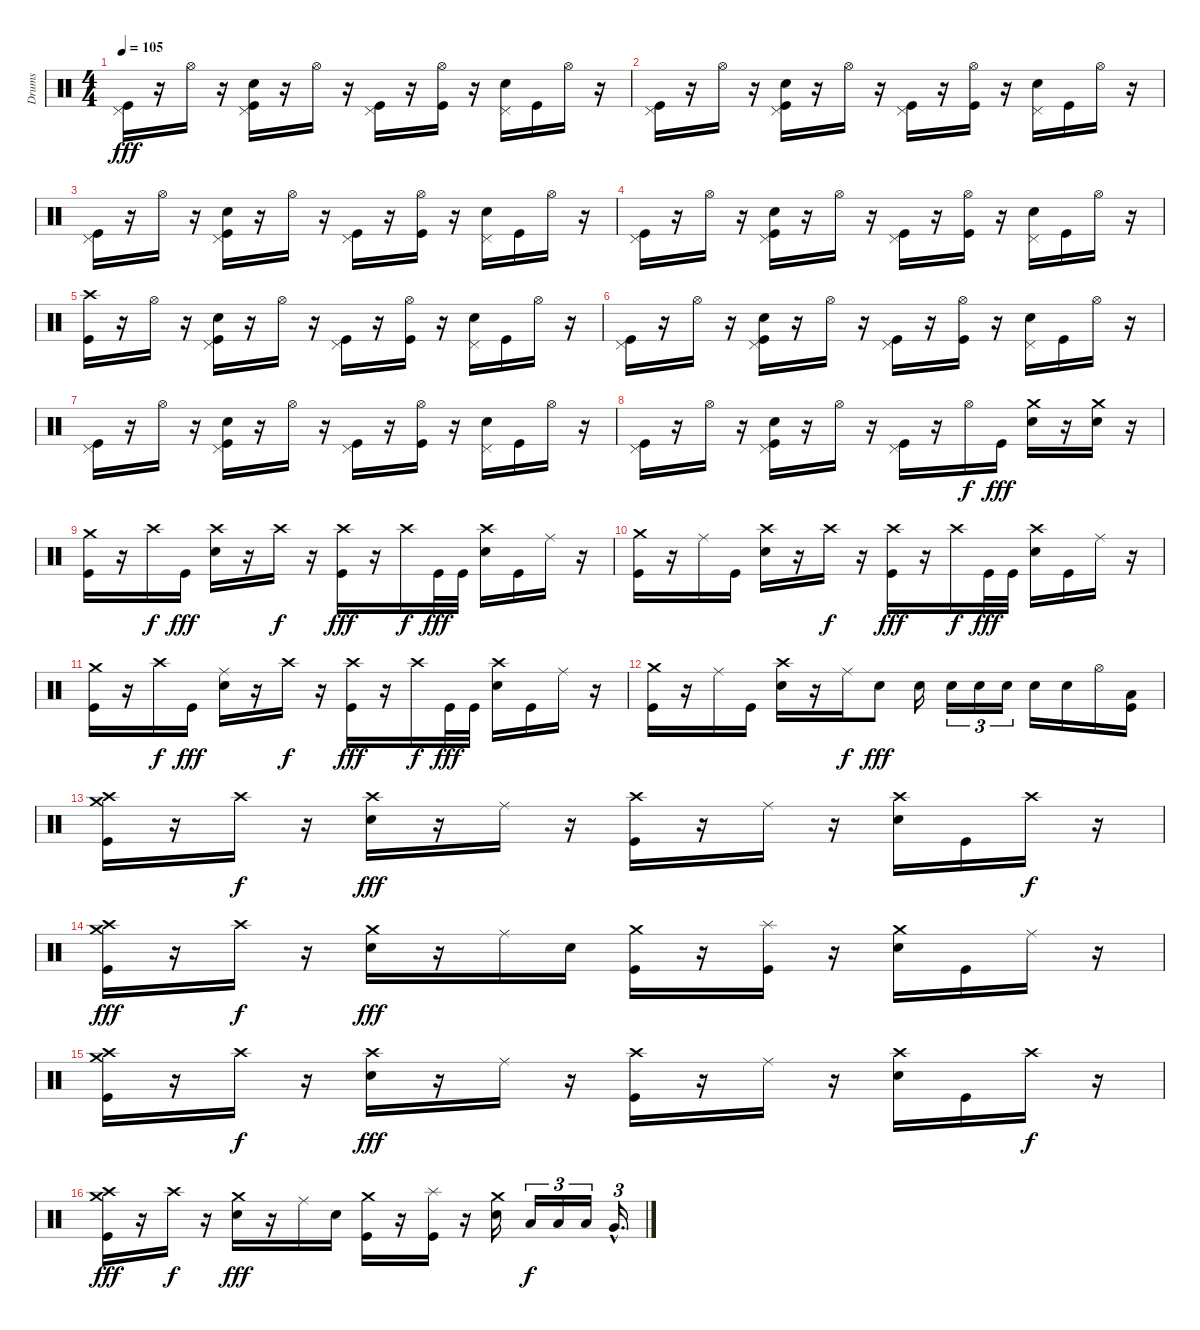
\track ("Drums" "Drums") {instrument percussion}
\staff {score}
\articulation defaults
\ts (4 4)
\tempo 105
\clef neutral
\ks c
("Pedal Hi-Hat (hit)" "Kick (hit)").16{dy fff} r.16 "Hi-Hat (open)".16 r.16 ("Pedal Hi-Hat (hit)" "Electric Snare (hit)" "Kick (hit)").16 r.16 "Hi-Hat (open)".16 r.16 ("Pedal Hi-Hat (hit)" "Kick (hit)").16 r.16 ("Hi-Hat (open)" "Kick (hit)").16 r.16 ("Pedal Hi-Hat (hit)" "Electric Snare (hit)").16 "Kick (hit)".16 "Hi-Hat (open)".16 r.16 |
("Pedal Hi-Hat (hit)" "Kick (hit)").16 r.16 "Hi-Hat (open)".16 r.16 ("Pedal Hi-Hat (hit)" "Electric Snare (hit)" "Kick (hit)").16 r.16 "Hi-Hat (open)".16 r.16 ("Pedal Hi-Hat (hit)" "Kick (hit)").16 r.16 ("Hi-Hat (open)" "Kick (hit)").16 r.16 ("Pedal Hi-Hat (hit)" "Electric Snare (hit)").16 "Kick (hit)".16 "Hi-Hat (open)".16 r.16 |
("Pedal Hi-Hat (hit)" "Kick (hit)").16 r.16 "Hi-Hat (open)".16 r.16 ("Pedal Hi-Hat (hit)" "Electric Snare (hit)" "Kick (hit)").16 r.16 "Hi-Hat (open)".16 r.16 ("Pedal Hi-Hat (hit)" "Kick (hit)").16 r.16 ("Hi-Hat (open)" "Kick (hit)").16 r.16 ("Pedal Hi-Hat (hit)" "Electric Snare (hit)").16 "Kick (hit)".16 "Hi-Hat (open)".16 r.16 |
("Pedal Hi-Hat (hit)" "Kick (hit)").16 r.16 "Hi-Hat (open)".16 r.16 ("Pedal Hi-Hat (hit)" "Electric Snare (hit)" "Kick (hit)").16 r.16 "Hi-Hat (open)".16 r.16 ("Pedal Hi-Hat (hit)" "Kick (hit)").16 r.16 ("Hi-Hat (open)" "Kick (hit)").16 r.16 ("Pedal Hi-Hat (hit)" "Electric Snare (hit)").16 "Kick (hit)".16 "Hi-Hat (open)".16 r.16 |
("Crash high (hit)" "Kick (hit)").16 r.16 "Hi-Hat (open)".16 r.16 ("Pedal Hi-Hat (hit)" "Electric Snare (hit)" "Kick (hit)").16 r.16 "Hi-Hat (open)".16 r.16 ("Pedal Hi-Hat (hit)" "Kick (hit)").16 r.16 ("Hi-Hat (open)" "Kick (hit)").16 r.16 ("Pedal Hi-Hat (hit)" "Electric Snare (hit)").16 "Kick (hit)".16 "Hi-Hat (open)".16 r.16 |
("Pedal Hi-Hat (hit)" "Kick (hit)").16 r.16 "Hi-Hat (open)".16 r.16 ("Pedal Hi-Hat (hit)" "Electric Snare (hit)" "Kick (hit)").16 r.16 "Hi-Hat (open)".16 r.16 ("Pedal Hi-Hat (hit)" "Kick (hit)").16 r.16 ("Hi-Hat (open)" "Kick (hit)").16 r.16 ("Pedal Hi-Hat (hit)" "Electric Snare (hit)").16 "Kick (hit)".16 "Hi-Hat (open)".16 r.16 |
("Pedal Hi-Hat (hit)" "Kick (hit)").16 r.16 "Hi-Hat (open)".16 r.16 ("Pedal Hi-Hat (hit)" "Electric Snare (hit)" "Kick (hit)").16 r.16 "Hi-Hat (open)".16 r.16 ("Pedal Hi-Hat (hit)" "Kick (hit)").16 r.16 ("Hi-Hat (open)" "Kick (hit)").16 r.16 ("Pedal Hi-Hat (hit)" "Electric Snare (hit)").16 "Kick (hit)".16 "Hi-Hat (open)".16 r.16 |
("Pedal Hi-Hat (hit)" "Kick (hit)").16 r.16 "Hi-Hat (open)".16 r.16 ("Pedal Hi-Hat (hit)" "Electric Snare (hit)" "Kick (hit)").16 r.16 "Hi-Hat (open)".16 r.16 ("Pedal Hi-Hat (hit)" "Kick (hit)").16 r.16 "Hi-Hat (open)".16{dy f} "Kick (hit)".16{dy fff} ("Crash medium (hit)" "Electric Snare (hit)").16 r.16 ("Crash medium (hit)" "Electric Snare (hit)").16 r.16 |
("Crash medium (hit)" "Kick (hit)").16 r.16 "Crash high (hit)".16{dy f} "Kick (hit)".16{dy fff} ("Crash high (hit)" "Electric Snare (hit)").16 r.16 "Crash high (hit)".16{dy f} r.16 ("Crash high (hit)" "Kick (hit)").16{dy fff} r.16 "Crash high (hit)".16{dy f} "Kick (hit)".32{dy fff} "Kick (hit)".32 ("Crash high (hit)" "Electric Snare (hit)").16 "Kick (hit)".16 "Ride (middle)".16 r.16 |
("Crash medium (hit)" "Kick (hit)").16 r.16 "Ride (middle)".16 "Kick (hit)".16 ("Crash high (hit)" "Electric Snare (hit)").16 r.16 "Crash high (hit)".16{dy f} r.16 ("Crash high (hit)" "Kick (hit)").16{dy fff} r.16 "Crash high (hit)".16{dy f} "Kick (hit)".32{dy fff} "Kick (hit)".32 ("Crash high (hit)" "Electric Snare (hit)").16 "Kick (hit)".16 "Ride (middle)".16 r.16 |
("Crash medium (hit)" "Kick (hit)").16 r.16 "Crash high (hit)".16{dy f} "Kick (hit)".16{dy fff} ("Ride (middle)" "Electric Snare (hit)").16 r.16 "Crash high (hit)".16{dy f} r.16 ("Crash high (hit)" "Kick (hit)").16{dy fff} r.16 "Crash high (hit)".16{dy f} "Kick (hit)".32{dy fff} "Kick (hit)".32 ("Crash high (hit)" "Electric Snare (hit)").16 "Kick (hit)".16 "Ride (middle)".16 r.16 |
("Crash medium (hit)" "Kick (hit)").16 r.16 "Ride (middle)".16 "Kick (hit)".16 ("Crash high (hit)" "Electric Snare (hit)").16 r.16 "Ride (middle)".16{dy f} "Electric Snare (hit)".8{dy fff} "Electric Snare (hit)".16 "Electric Snare (hit)".16{tu (3 2)} "Electric Snare (hit)".16{tu (3 2)} "Electric Snare (hit)".16{tu (3 2)} "Electric Snare (hit)".16 "Electric Snare (hit)".16 "Hi-Hat (open)".16 ("Low Floor Tom (hit)" "Kick (hit)").16 |
("Crash medium (hit)" "Kick (hit)" "Crash high (hit)").16 r.16 "Crash high (hit)".16{dy f} r.16 ("Crash high (hit)" "Electric Snare (hit)").16{dy fff} r.16 "Ride (middle)".16 r.16 ("Crash high (hit)" "Kick (hit)").16 r.16 "Ride (middle)".16 r.16 ("Crash high (hit)" "Electric Snare (hit)").16 "Kick (hit)".16 "Crash high (hit)".16{dy f} r.16 |
("Crash medium (hit)" "Kick (hit)" "Crash high (hit)").16{dy fff} r.16 "Crash high (hit)".16{dy f} r.16 ("Crash medium (hit)" "Electric Snare (hit)").16{dy fff} r.16 "Ride (middle)".16 "Electric Snare (hit)".16 ("Crash medium (hit)" "Kick (hit)").16 r.16 ("Splash (hit)" "Kick (hit)").16 r.16 ("Crash medium (hit)" "Electric Snare (hit)").16 "Kick (hit)".16 "Ride (middle)".16 r.16 |
("Crash medium (hit)" "Kick (hit)" "Crash high (hit)").16 r.16 "Crash high (hit)".16{dy f} r.16 ("Crash high (hit)" "Electric Snare (hit)").16{dy fff} r.16 "Ride (middle)".16 r.16 ("Crash high (hit)" "Kick (hit)").16 r.16 "Ride (middle)".16 r.16 ("Crash high (hit)" "Electric Snare (hit)").16 "Kick (hit)".16 "Crash high (hit)".16{dy f} r.16 |
("Crash medium (hit)" "Kick (hit)" "Crash high (hit)").16{dy fff} r.16 "Crash high (hit)".16{dy f} r.16 ("Crash medium (hit)" "Electric Snare (hit)").16{dy fff} r.16 "Ride (middle)".16 "Electric Snare (hit)".16 ("Crash medium (hit)" "Kick (hit)").16 r.16 ("Splash (hit)" "Kick (hit)").16 r.16 ("Crash medium (hit)" "Electric Snare (hit)").16 "Low Tom (hit)".16{tu (3 2) dy f} "Low Tom (hit)".16{tu (3 2)} "Low Tom (hit)".16{tu (3 2)} "Very Low Tom (hit)"{hac}.16{d tu (3 2)}
